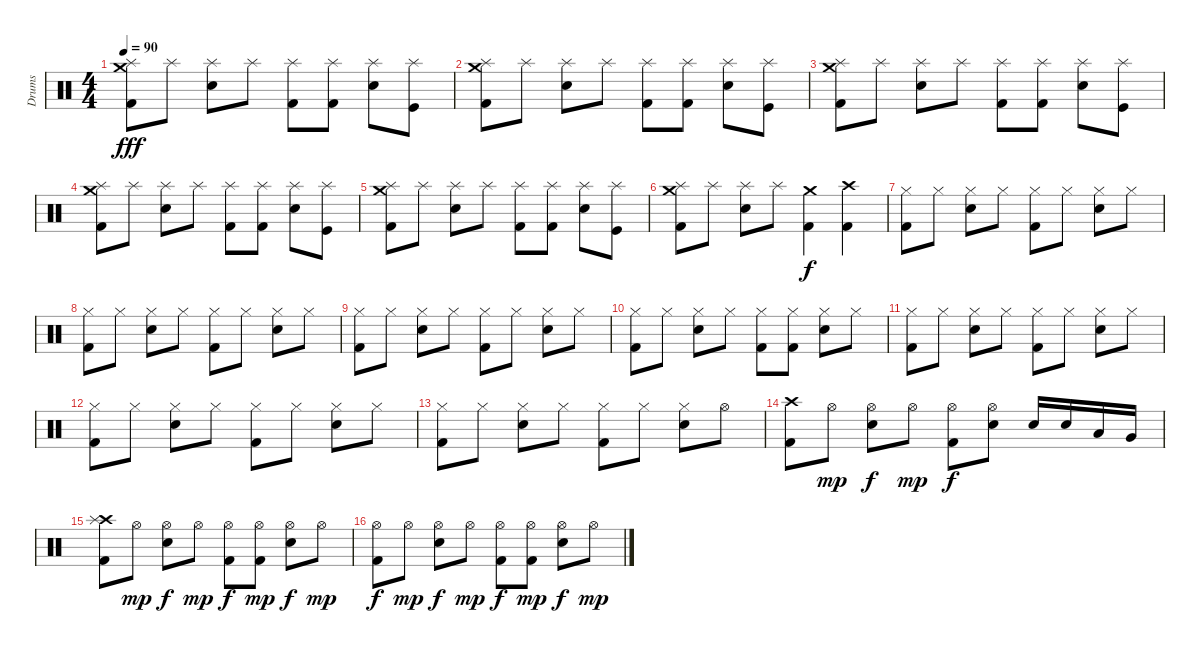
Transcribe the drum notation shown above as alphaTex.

\track ("Drums" "Drums") {instrument percussion}
\staff {score}
\articulation defaults
\ts (4 4)
\tempo 90
\clef neutral
\ks c
("Splash (hit)" "Crash medium (hit)" "Kick (hit) 2").8{dy fff} "Splash (hit)".8 ("Splash (hit)" "Electric Snare (hit)").8 "Splash (hit)".8 ("Splash (hit)" "Kick (hit) 2").8 ("Splash (hit)" "Kick (hit) 2").8 ("Splash (hit)" "Electric Snare (hit)").8 ("Splash (hit)" "Kick (hit)").8 |
("Splash (hit)" "Crash medium (hit)" "Kick (hit) 2").8 "Splash (hit)".8 ("Splash (hit)" "Electric Snare (hit)").8 "Splash (hit)".8 ("Splash (hit)" "Kick (hit) 2").8 ("Splash (hit)" "Kick (hit) 2").8 ("Splash (hit)" "Electric Snare (hit)").8 ("Splash (hit)" "Kick (hit)").8 |
("Splash (hit)" "Crash medium (hit)" "Kick (hit) 2").8 "Splash (hit)".8 ("Splash (hit)" "Electric Snare (hit)").8 "Splash (hit)".8 ("Splash (hit)" "Kick (hit) 2").8 ("Splash (hit)" "Kick (hit) 2").8 ("Splash (hit)" "Electric Snare (hit)").8 ("Splash (hit)" "Kick (hit)").8 |
("Splash (hit)" "Crash medium (hit)" "Kick (hit) 2").8 "Splash (hit)".8 ("Splash (hit)" "Electric Snare (hit)").8 "Splash (hit)".8 ("Splash (hit)" "Kick (hit) 2").8 ("Splash (hit)" "Kick (hit) 2").8 ("Splash (hit)" "Electric Snare (hit)").8 ("Splash (hit)" "Kick (hit)").8 |
("Splash (hit)" "Crash medium (hit)" "Kick (hit) 2").8 "Splash (hit)".8 ("Splash (hit)" "Electric Snare (hit)").8 "Splash (hit)".8 ("Splash (hit)" "Kick (hit) 2").8 ("Splash (hit)" "Kick (hit) 2").8 ("Splash (hit)" "Electric Snare (hit)").8 ("Splash (hit)" "Kick (hit)").8 |
("Splash (hit)" "Crash medium (hit)" "Kick (hit) 2").8 "Splash (hit)".8 ("Splash (hit)" "Electric Snare (hit)").8 "Splash (hit)".8 ("Crash medium (hit)" "Kick (hit) 2").4{dy f} ("Crash high (hit)" "Kick (hit) 2").4 |
("Hi-Hat (closed)" "Kick (hit) 2").8 "Hi-Hat (closed)".8 ("Hi-Hat (closed)" "Electric Snare (hit)").8 "Hi-Hat (closed)".8 ("Hi-Hat (closed)" "Kick (hit) 2").8 "Hi-Hat (closed)".8 ("Hi-Hat (closed)" "Electric Snare (hit)").8 "Hi-Hat (closed)".8 |
("Hi-Hat (closed)" "Kick (hit) 2").8 "Hi-Hat (closed)".8 ("Hi-Hat (closed)" "Electric Snare (hit)").8 "Hi-Hat (closed)".8 ("Hi-Hat (closed)" "Kick (hit) 2").8 "Hi-Hat (closed)".8 ("Hi-Hat (closed)" "Electric Snare (hit)").8 "Hi-Hat (closed)".8 |
("Hi-Hat (closed)" "Kick (hit) 2").8 "Hi-Hat (closed)".8 ("Hi-Hat (closed)" "Electric Snare (hit)").8 "Hi-Hat (closed)".8 ("Hi-Hat (closed)" "Kick (hit) 2").8 "Hi-Hat (closed)".8 ("Hi-Hat (closed)" "Electric Snare (hit)").8 "Hi-Hat (closed)".8 |
("Hi-Hat (closed)" "Kick (hit) 2").8 "Hi-Hat (closed)".8 ("Hi-Hat (closed)" "Electric Snare (hit)").8 "Hi-Hat (closed)".8 ("Hi-Hat (closed)" "Kick (hit) 2").8 ("Hi-Hat (closed)" "Kick (hit) 2").8 ("Hi-Hat (closed)" "Electric Snare (hit)").8 "Hi-Hat (closed)".8 |
("Hi-Hat (closed)" "Kick (hit) 2").8 "Hi-Hat (closed)".8 ("Hi-Hat (closed)" "Electric Snare (hit)").8 "Hi-Hat (closed)".8 ("Hi-Hat (closed)" "Kick (hit) 2").8 "Hi-Hat (closed)".8 ("Hi-Hat (closed)" "Electric Snare (hit)").8 "Hi-Hat (closed)".8 |
("Hi-Hat (closed)" "Kick (hit) 2").8 "Hi-Hat (closed)".8 ("Hi-Hat (closed)" "Electric Snare (hit)").8 "Hi-Hat (closed)".8 ("Hi-Hat (closed)" "Kick (hit) 2").8 "Hi-Hat (closed)".8 ("Hi-Hat (closed)" "Electric Snare (hit)").8 "Hi-Hat (closed)".8 |
("Hi-Hat (closed)" "Kick (hit) 2").8 "Hi-Hat (closed)".8 ("Hi-Hat (closed)" "Electric Snare (hit)").8 "Hi-Hat (closed)".8 ("Hi-Hat (closed)" "Kick (hit) 2").8 "Hi-Hat (closed)".8 ("Hi-Hat (closed)" "Electric Snare (hit)").8 "Hi-Hat (open)".8 |
("Crash high (hit)" "Kick (hit) 2").8 "Hi-Hat (open)".8{dy mp} ("Hi-Hat (open)" "Snare (hit) 2").8{dy f} "Hi-Hat (open)".8{dy mp} ("Hi-Hat (open)" "Kick (hit) 2").8{dy f} ("Hi-Hat (open)" "Snare (hit) 2").8 "Snare (hit) 2".16 "Snare (hit) 2".16 "Low Tom (hit)".16 "Very Low Tom (hit)".16 |
("Crash high (hit)" "Splash (hit)" "Kick (hit) 2").8 "Hi-Hat (open)".8{dy mp} ("Hi-Hat (open)" "Electric Snare (hit)").8{dy f} "Hi-Hat (open)".8{dy mp} ("Hi-Hat (open)" "Kick (hit) 2").8{dy f} ("Hi-Hat (open)" "Kick (hit) 2").8{dy mp} ("Hi-Hat (open)" "Electric Snare (hit)").8{dy f} "Hi-Hat (open)".8{dy mp} |
("Hi-Hat (open)" "Kick (hit) 2").8{dy f} "Hi-Hat (open)".8{dy mp} ("Hi-Hat (open)" "Electric Snare (hit)").8{dy f} "Hi-Hat (open)".8{dy mp} ("Hi-Hat (open)" "Kick (hit) 2").8{dy f} ("Hi-Hat (open)" "Kick (hit) 2").8{dy mp} ("Hi-Hat (open)" "Electric Snare (hit)").8{dy f} "Hi-Hat (open)".8{dy mp}
